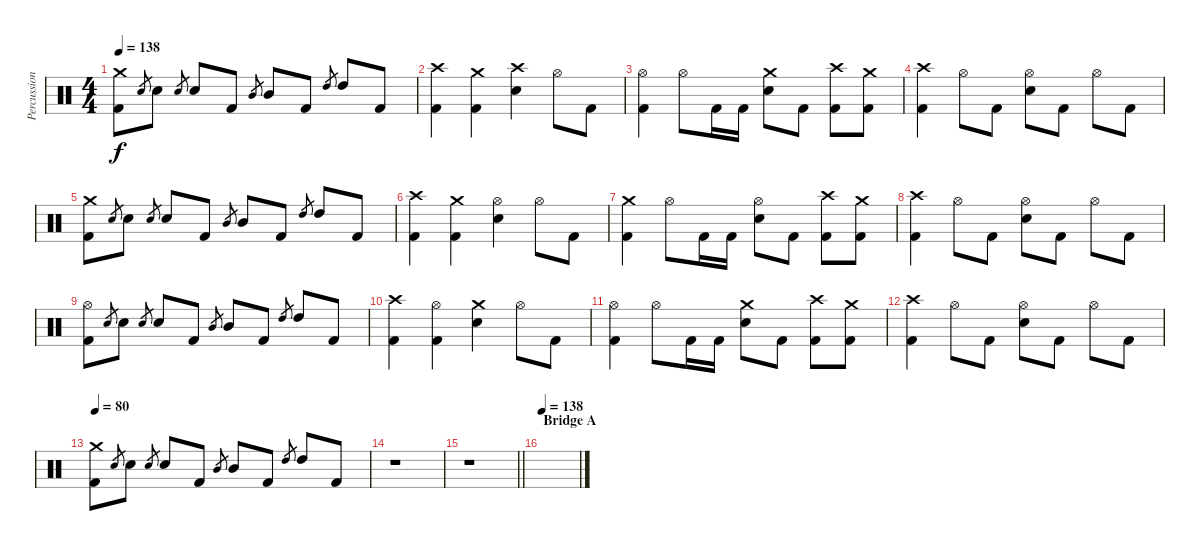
\track ("Percussion" "Percussion") {instrument percussion}
\staff {score}
\articulation defaults
\ts (4 4)
\tempo 138
\clef neutral
\ks c
("Crash medium (hit)" "Kick (hit) 2").8{dy f} "Electric Snare (hit)".8{gr} "Electric Snare (hit)".8 "Electric Snare (hit)".8{gr} "Electric Snare (hit)".8 "Kick (hit) 2".8 "Mid Tom (hit)".8{gr} "Mid Tom (hit)".8 "Kick (hit) 2".8 "High Tom (hit)".8{gr} "High Tom (hit)".8 "Kick (hit) 2".8 |
("Crash high (hit)" "Kick (hit) 2").4 ("Crash medium (hit)" "Kick (hit) 2").4 ("Crash high (hit)" "Electric Snare (hit)").4 "Hi-Hat (open)".8 "Kick (hit) 2".8 |
("Hi-Hat (open)" "Kick (hit) 2").4 "Hi-Hat (open)".8 "Kick (hit) 2".16 "Kick (hit) 2".16 ("Crash medium (hit)" "Electric Snare (hit)").8 "Kick (hit) 2".8 ("Crash high (hit)" "Kick (hit) 2").8 ("Crash medium (hit)" "Kick (hit) 2").8 |
("Crash high (hit)" "Kick (hit) 2").4 "Hi-Hat (open)".8 "Kick (hit) 2".8 ("Hi-Hat (open)" "Electric Snare (hit)").8 "Kick (hit) 2".8 "Hi-Hat (open)".8 "Kick (hit) 2".8 |
("Crash medium (hit)" "Kick (hit) 2").8 "Electric Snare (hit)".8{gr} "Electric Snare (hit)".8 "Electric Snare (hit)".8{gr} "Electric Snare (hit)".8 "Kick (hit) 2".8 "Mid Tom (hit)".8{gr} "Mid Tom (hit)".8 "Kick (hit) 2".8 "High Tom (hit)".8{gr} "High Tom (hit)".8 "Kick (hit) 2".8 |
("Crash high (hit)" "Kick (hit) 2").4 ("Crash medium (hit)" "Kick (hit) 2").4 ("Hi-Hat (open)" "Electric Snare (hit)").4 "Hi-Hat (open)".8 "Kick (hit) 2".8 |
("Crash medium (hit)" "Kick (hit) 2").4 "Hi-Hat (open)".8 "Kick (hit) 2".16 "Kick (hit) 2".16 ("Hi-Hat (open)" "Electric Snare (hit)").8 "Kick (hit) 2".8 ("Crash high (hit)" "Kick (hit) 2").8 ("Crash medium (hit)" "Kick (hit) 2").8 |
("Crash high (hit)" "Kick (hit) 2").4 "Hi-Hat (open)".8 "Kick (hit) 2".8 ("Hi-Hat (open)" "Electric Snare (hit)").8 "Kick (hit) 2".8 "Hi-Hat (open)".8 "Kick (hit) 2".8 |
("Hi-Hat (open)" "Kick (hit) 2").8 "Electric Snare (hit)".8{gr} "Electric Snare (hit)".8 "Electric Snare (hit)".8{gr} "Electric Snare (hit)".8 "Kick (hit) 2".8 "Mid Tom (hit)".8{gr} "Mid Tom (hit)".8 "Kick (hit) 2".8 "High Tom (hit)".8{gr} "High Tom (hit)".8 "Kick (hit) 2".8 |
("Crash high (hit)" "Kick (hit) 2").4 ("Hi-Hat (open)" "Kick (hit) 2").4 ("Crash medium (hit)" "Electric Snare (hit)").4 "Hi-Hat (open)".8 "Kick (hit) 2".8 |
("Hi-Hat (open)" "Kick (hit) 2").4 "Hi-Hat (open)".8 "Kick (hit) 2".16 "Kick (hit) 2".16 ("Crash medium (hit)" "Electric Snare (hit)").8 "Kick (hit) 2".8 ("Crash high (hit)" "Kick (hit) 2").8 ("Crash medium (hit)" "Kick (hit) 2").8 |
("Crash high (hit)" "Kick (hit) 2").4 "Hi-Hat (open)".8 "Kick (hit) 2".8 ("Hi-Hat (open)" "Electric Snare (hit)").8 "Kick (hit) 2".8 "Hi-Hat (open)".8 "Kick (hit) 2".8 |
\tempo 80
("Crash medium (hit)" "Kick (hit) 2").8 "Electric Snare (hit)".8{gr} "Electric Snare (hit)".8 "Electric Snare (hit)".8{gr} "Electric Snare (hit)".8 "Kick (hit) 2".8 "Mid Tom (hit)".8{gr} "Mid Tom (hit)".8 "Kick (hit) 2".8 "High Tom (hit)".8{gr} "High Tom (hit)".8 "Kick (hit) 2".8 |
r.1 |
\barLineRight lightlight
r.1 |
\section ("" "Bridge A")
\tempo 138
